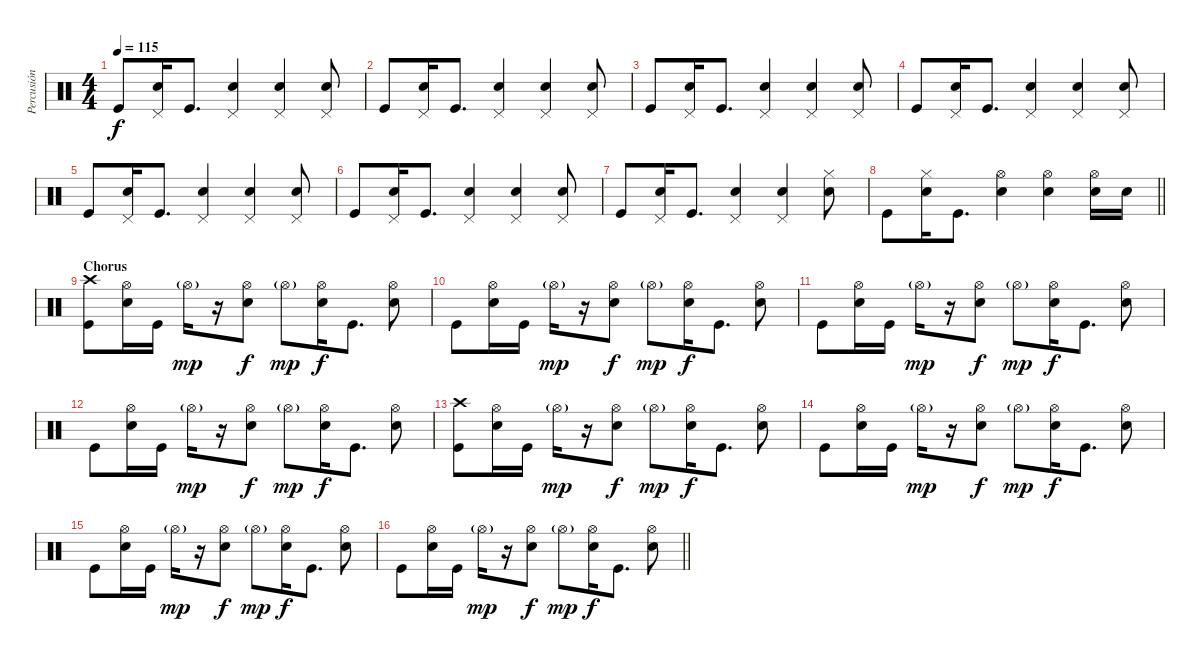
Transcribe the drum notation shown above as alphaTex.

\track ("Percusión" "Percusión") {instrument percussion}
\staff {score}
\articulation defaults
\ts (4 4)
\tempo 115
\clef neutral
\ks c "Kick (hit)".8{dy f}
("Electric Snare (hit)" "Pedal Hi-Hat (hit)").16 "Kick (hit)".8{d} ("Electric Snare (hit)" "Pedal Hi-Hat (hit)").4 ("Electric Snare (hit)" "Pedal Hi-Hat (hit)").4 ("Electric Snare (hit)" "Pedal Hi-Hat (hit)").8 |
"Kick (hit)".8 ("Electric Snare (hit)" "Pedal Hi-Hat (hit)").16 "Kick (hit)".8{d} ("Electric Snare (hit)" "Pedal Hi-Hat (hit)").4 ("Electric Snare (hit)" "Pedal Hi-Hat (hit)").4 ("Electric Snare (hit)" "Pedal Hi-Hat (hit)").8 |
"Kick (hit)".8 ("Electric Snare (hit)" "Pedal Hi-Hat (hit)").16 "Kick (hit)".8{d} ("Electric Snare (hit)" "Pedal Hi-Hat (hit)").4 ("Electric Snare (hit)" "Pedal Hi-Hat (hit)").4 ("Electric Snare (hit)" "Pedal Hi-Hat (hit)").8 |
"Kick (hit)".8 ("Electric Snare (hit)" "Pedal Hi-Hat (hit)").16 "Kick (hit)".8{d} ("Electric Snare (hit)" "Pedal Hi-Hat (hit)").4 ("Electric Snare (hit)" "Pedal Hi-Hat (hit)").4 ("Electric Snare (hit)" "Pedal Hi-Hat (hit)").8 |
"Kick (hit)".8 ("Electric Snare (hit)" "Pedal Hi-Hat (hit)").16 "Kick (hit)".8{d} ("Electric Snare (hit)" "Pedal Hi-Hat (hit)").4 ("Electric Snare (hit)" "Pedal Hi-Hat (hit)").4 ("Electric Snare (hit)" "Pedal Hi-Hat (hit)").8 |
"Kick (hit)".8 ("Electric Snare (hit)" "Pedal Hi-Hat (hit)").16 "Kick (hit)".8{d} ("Electric Snare (hit)" "Pedal Hi-Hat (hit)").4 ("Electric Snare (hit)" "Pedal Hi-Hat (hit)").4 ("Electric Snare (hit)" "Pedal Hi-Hat (hit)").8 |
"Kick (hit)".8 ("Electric Snare (hit)" "Pedal Hi-Hat (hit)").16 "Kick (hit)".8{d} ("Electric Snare (hit)" "Pedal Hi-Hat (hit)").4 ("Electric Snare (hit)" "Pedal Hi-Hat (hit)").4 ("Electric Snare (hit)" "Hi-Hat (closed)").8 |
\barLineRight lightlight "Kick (hit)".8
("Electric Snare (hit)" "Hi-Hat (closed)").16 "Kick (hit)".8{d} ("Electric Snare (hit)" "Hi-Hat (open)").4 ("Electric Snare (hit)" "Hi-Hat (open)").4 ("Electric Snare (hit)" "Hi-Hat (open)").16 "Electric Snare (hit)".16 |
\section ("" "Chorus")
("Kick (hit)" "Crash high (hit)").8 ("Electric Snare (hit)" "Hi-Hat (open)").16 "Kick (hit)".16 "Hi-Hat (open)"{g}.16{dy mp} r.16 ("Electric Snare (hit)" "Hi-Hat (open)").8{dy f} "Hi-Hat (open)"{g}.8{dy mp} ("Electric Snare (hit)" "Hi-Hat (open)").16{dy f} "Kick (hit)".8{d} ("Electric Snare (hit)" "Hi-Hat (open)").8 |
"Kick (hit)".8 ("Electric Snare (hit)" "Hi-Hat (open)").16 "Kick (hit)".16 "Hi-Hat (open)"{g}.16{dy mp} r.16 ("Electric Snare (hit)" "Hi-Hat (open)").8{dy f} "Hi-Hat (open)"{g}.8{dy mp} ("Electric Snare (hit)" "Hi-Hat (open)").16{dy f} "Kick (hit)".8{d} ("Electric Snare (hit)" "Hi-Hat (open)").8 |
"Kick (hit)".8 ("Electric Snare (hit)" "Hi-Hat (open)").16 "Kick (hit)".16 "Hi-Hat (open)"{g}.16{dy mp} r.16 ("Electric Snare (hit)" "Hi-Hat (open)").8{dy f} "Hi-Hat (open)"{g}.8{dy mp} ("Electric Snare (hit)" "Hi-Hat (open)").16{dy f} "Kick (hit)".8{d} ("Electric Snare (hit)" "Hi-Hat (open)").8 |
"Kick (hit)".8 ("Electric Snare (hit)" "Hi-Hat (open)").16 "Kick (hit)".16 "Hi-Hat (open)"{g}.16{dy mp} r.16 ("Electric Snare (hit)" "Hi-Hat (open)").8{dy f} "Hi-Hat (open)"{g}.8{dy mp} ("Electric Snare (hit)" "Hi-Hat (open)").16{dy f} "Kick (hit)".8{d} ("Electric Snare (hit)" "Hi-Hat (open)").8 |
("Kick (hit)" "Crash high (hit)").8 ("Electric Snare (hit)" "Hi-Hat (open)").16 "Kick (hit)".16 "Hi-Hat (open)"{g}.16{dy mp} r.16 ("Electric Snare (hit)" "Hi-Hat (open)").8{dy f} "Hi-Hat (open)"{g}.8{dy mp} ("Electric Snare (hit)" "Hi-Hat (open)").16{dy f} "Kick (hit)".8{d} ("Electric Snare (hit)" "Hi-Hat (open)").8 |
"Kick (hit)".8 ("Electric Snare (hit)" "Hi-Hat (open)").16 "Kick (hit)".16 "Hi-Hat (open)"{g}.16{dy mp} r.16 ("Electric Snare (hit)" "Hi-Hat (open)").8{dy f} "Hi-Hat (open)"{g}.8{dy mp} ("Electric Snare (hit)" "Hi-Hat (open)").16{dy f} "Kick (hit)".8{d} ("Electric Snare (hit)" "Hi-Hat (open)").8 |
"Kick (hit)".8 ("Electric Snare (hit)" "Hi-Hat (open)").16 "Kick (hit)".16 "Hi-Hat (open)"{g}.16{dy mp} r.16 ("Electric Snare (hit)" "Hi-Hat (open)").8{dy f} "Hi-Hat (open)"{g}.8{dy mp} ("Electric Snare (hit)" "Hi-Hat (open)").16{dy f} "Kick (hit)".8{d} ("Electric Snare (hit)" "Hi-Hat (open)").8 |
\barLineRight lightlight "Kick (hit)".8
("Electric Snare (hit)" "Hi-Hat (open)").16 "Kick (hit)".16 "Hi-Hat (open)"{g}.16{dy mp} r.16 ("Electric Snare (hit)" "Hi-Hat (open)").8{dy f} "Hi-Hat (open)"{g}.8{dy mp} ("Electric Snare (hit)" "Hi-Hat (open)").16{dy f} "Kick (hit)".8{d} ("Electric Snare (hit)" "Hi-Hat (open)").8
